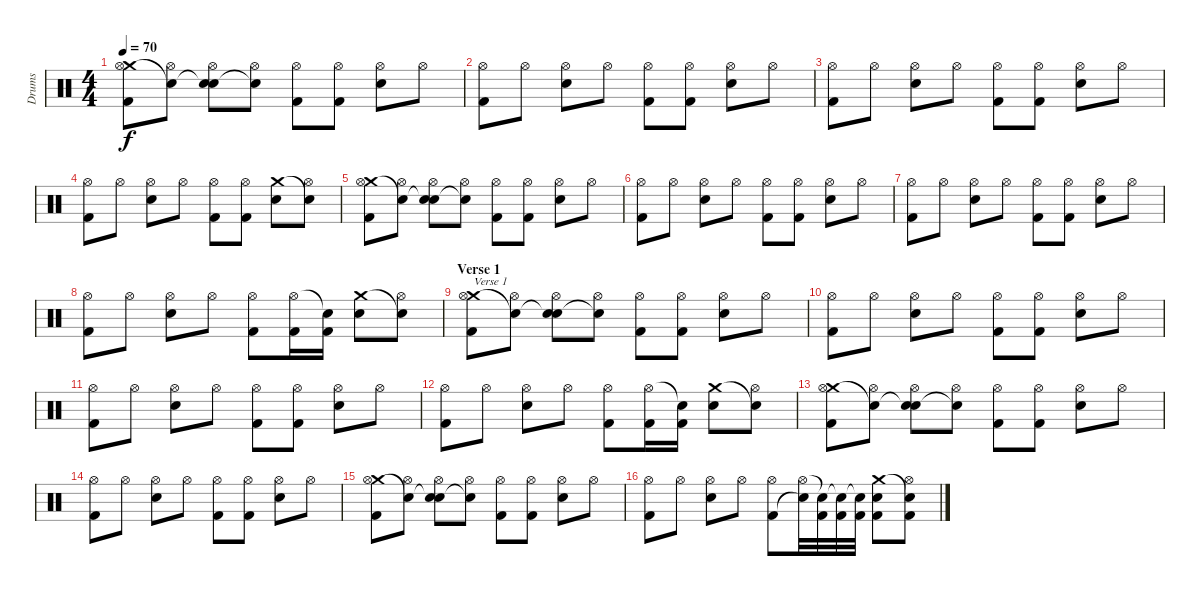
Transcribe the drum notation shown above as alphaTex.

\track ("Drums" "Drums") {instrument percussion}
\staff {score}
\articulation defaults
\ts (4 4)
\tempo 70
\clef neutral
\ks c
("Crash medium (hit)" "Hi-Hat (open)" "Kick (hit) 2").8{dy f} ("Snare (hit)"{t} "Hi-Hat (open)").8 ("Snare (hit)"{t} "Hi-Hat (open)" "Electric Snare (hit)").8 ("Snare (hit)"{t} "Hi-Hat (open)").8 ("Hi-Hat (open)" "Kick (hit) 2").8 ("Hi-Hat (open)" "Kick (hit) 2").8 ("Hi-Hat (open)" "Electric Snare (hit)").8 "Hi-Hat (open)".8 |
("Hi-Hat (open)" "Kick (hit) 2").8 "Hi-Hat (open)".8 ("Hi-Hat (open)" "Electric Snare (hit)").8 "Hi-Hat (open)".8 ("Hi-Hat (open)" "Kick (hit) 2").8 ("Hi-Hat (open)" "Kick (hit) 2").8 ("Hi-Hat (open)" "Electric Snare (hit)").8 "Hi-Hat (open)".8 |
("Hi-Hat (open)" "Kick (hit) 2").8 "Hi-Hat (open)".8 ("Hi-Hat (open)" "Electric Snare (hit)").8 "Hi-Hat (open)".8 ("Hi-Hat (open)" "Kick (hit) 2").8 ("Hi-Hat (open)" "Kick (hit) 2").8 ("Hi-Hat (open)" "Electric Snare (hit)").8 "Hi-Hat (open)".8 |
("Hi-Hat (open)" "Kick (hit) 2").8 "Hi-Hat (open)".8 ("Hi-Hat (open)" "Electric Snare (hit)").8 "Hi-Hat (open)".8 ("Hi-Hat (open)" "Kick (hit) 2").8 ("Hi-Hat (open)" "Kick (hit) 2").8 ("Crash medium (hit)" "Electric Snare (hit)").8 ("Snare (hit)"{t} "Hi-Hat (open)").8 |
("Crash medium (hit)" "Hi-Hat (open)" "Kick (hit) 2").8 ("Snare (hit)"{t} "Hi-Hat (open)").8 ("Snare (hit)"{t} "Hi-Hat (open)" "Electric Snare (hit)").8 ("Snare (hit)"{t} "Hi-Hat (open)").8 ("Hi-Hat (open)" "Kick (hit) 2").8 ("Hi-Hat (open)" "Kick (hit) 2").8 ("Hi-Hat (open)" "Electric Snare (hit)").8 "Hi-Hat (open)".8 |
("Hi-Hat (open)" "Kick (hit) 2").8 "Hi-Hat (open)".8 ("Hi-Hat (open)" "Electric Snare (hit)").8 "Hi-Hat (open)".8 ("Hi-Hat (open)" "Kick (hit) 2").8 ("Hi-Hat (open)" "Kick (hit) 2").8 ("Hi-Hat (open)" "Electric Snare (hit)").8 "Hi-Hat (open)".8 |
("Hi-Hat (open)" "Kick (hit) 2").8 "Hi-Hat (open)".8 ("Hi-Hat (open)" "Electric Snare (hit)").8 "Hi-Hat (open)".8 ("Hi-Hat (open)" "Kick (hit) 2").8 ("Hi-Hat (open)" "Kick (hit) 2").8 ("Hi-Hat (open)" "Electric Snare (hit)").8 "Hi-Hat (open)".8 |
("Hi-Hat (open)" "Kick (hit) 2").8 "Hi-Hat (open)".8 ("Hi-Hat (open)" "Electric Snare (hit)").8 "Hi-Hat (open)".8 ("Hi-Hat (open)" "Kick (hit) 2").8 ("Hi-Hat (open)" "Kick (hit) 2").16 ("Snare (hit)"{t} "Kick (hit) 2").16 ("Crash medium (hit)" "Electric Snare (hit)").8 ("Snare (hit)"{t} "Hi-Hat (open)").8 |
\section ("" "Verse 1")
("Crash medium (hit)" "Hi-Hat (open)" "Kick (hit) 2").8{txt "Verse 1"} ("Snare (hit)"{t} "Hi-Hat (open)").8 ("Snare (hit)"{t} "Hi-Hat (open)" "Electric Snare (hit)").8 ("Snare (hit)"{t} "Hi-Hat (open)").8 ("Hi-Hat (open)" "Kick (hit) 2").8 ("Hi-Hat (open)" "Kick (hit) 2").8 ("Hi-Hat (open)" "Electric Snare (hit)").8 "Hi-Hat (open)".8 |
("Hi-Hat (open)" "Kick (hit) 2").8 "Hi-Hat (open)".8 ("Hi-Hat (open)" "Electric Snare (hit)").8 "Hi-Hat (open)".8 ("Hi-Hat (open)" "Kick (hit) 2").8 ("Hi-Hat (open)" "Kick (hit) 2").8 ("Hi-Hat (open)" "Electric Snare (hit)").8 "Hi-Hat (open)".8 |
("Hi-Hat (open)" "Kick (hit) 2").8 "Hi-Hat (open)".8 ("Hi-Hat (open)" "Electric Snare (hit)").8 "Hi-Hat (open)".8 ("Hi-Hat (open)" "Kick (hit) 2").8 ("Hi-Hat (open)" "Kick (hit) 2").8 ("Hi-Hat (open)" "Electric Snare (hit)").8 "Hi-Hat (open)".8 |
("Hi-Hat (open)" "Kick (hit) 2").8 "Hi-Hat (open)".8 ("Hi-Hat (open)" "Electric Snare (hit)").8 "Hi-Hat (open)".8 ("Hi-Hat (open)" "Kick (hit) 2").8 ("Hi-Hat (open)" "Kick (hit) 2").16 ("Snare (hit)"{t} "Kick (hit) 2").16 ("Crash medium (hit)" "Electric Snare (hit)").8 ("Snare (hit)"{t} "Hi-Hat (open)").8 |
("Crash medium (hit)" "Hi-Hat (open)" "Kick (hit) 2").8 ("Snare (hit)"{t} "Hi-Hat (open)").8 ("Snare (hit)"{t} "Hi-Hat (open)" "Electric Snare (hit)").8 ("Snare (hit)"{t} "Hi-Hat (open)").8 ("Hi-Hat (open)" "Kick (hit) 2").8 ("Hi-Hat (open)" "Kick (hit) 2").8 ("Hi-Hat (open)" "Electric Snare (hit)").8 "Hi-Hat (open)".8 |
("Hi-Hat (open)" "Kick (hit) 2").8 "Hi-Hat (open)".8 ("Hi-Hat (open)" "Electric Snare (hit)").8 "Hi-Hat (open)".8 ("Hi-Hat (open)" "Kick (hit) 2").8 ("Hi-Hat (open)" "Kick (hit) 2").8 ("Hi-Hat (open)" "Electric Snare (hit)").8 "Hi-Hat (open)".8 |
("Crash medium (hit)" "Hi-Hat (open)" "Kick (hit) 2").8 ("Snare (hit)"{t} "Hi-Hat (open)").8 ("Snare (hit)"{t} "Hi-Hat (open)" "Electric Snare (hit)").8 ("Snare (hit)"{t} "Hi-Hat (open)").8 ("Hi-Hat (open)" "Kick (hit) 2").8 ("Hi-Hat (open)" "Kick (hit) 2").8 ("Hi-Hat (open)" "Electric Snare (hit)").8 "Hi-Hat (open)".8 |
("Hi-Hat (open)" "Kick (hit) 2").8 "Hi-Hat (open)".8 ("Hi-Hat (open)" "Electric Snare (hit)").8 "Hi-Hat (open)".8 ("Hi-Hat (open)" "Kick (hit) 2").8 ("Hi-Hat (open)" "Snare (hit)"{t}).32 ("Snare (hit)"{t} "Kick (hit) 2").32 ("Snare (hit)"{t} "Kick (hit) 2").32 ("Snare (hit)"{t} "Kick (hit) 2").32 ("Crash medium (hit)" "Electric Snare (hit)" "Kick (hit) 2").8 ("Snare (hit)"{t} "Hi-Hat (open)" "Kick (hit) 2").8
